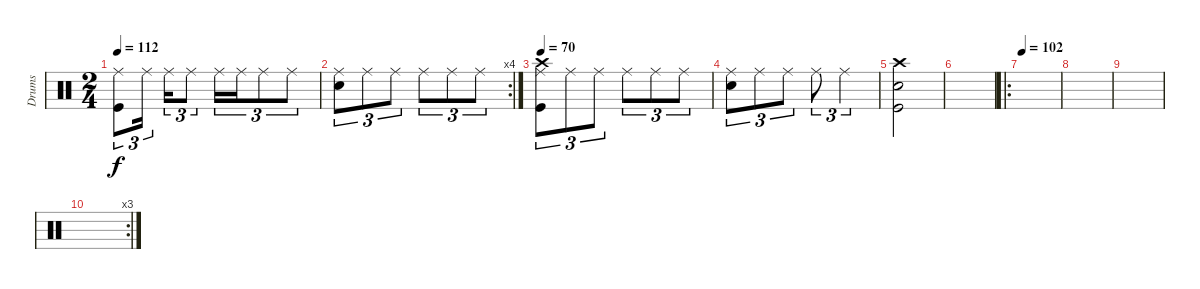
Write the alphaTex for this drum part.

\track ("Drums" "Drums") {instrument percussion}
\staff {score}
\articulation defaults
\ts (2 4)
\tempo 112
\clef neutral
\ks c
("Ride (middle)" "Kick (hit)").8{tu (3 2) dy f} "Ride (middle)".16{tu (3 2) beam splitsecondary} "Ride (middle)".16{tu (3 2)} "Ride (middle)".8{tu (3 2)} "Ride (middle)".16{tu (3 2)} "Ride (middle)".16{tu (3 2)} "Ride (middle)".8{tu (3 2)} "Ride (middle)".8{tu (3 2)} |
\rc 4
("Ride (middle)" "Snare (hit) 2").8{tu (3 2)} "Ride (middle)".8{tu (3 2)} "Ride (middle)".8{tu (3 2)} "Ride (middle)".8{tu (3 2)} "Ride (middle)".8{tu (3 2)} "Ride (middle)".8{tu (3 2)} |
\tempo 70
("Ride (middle)" "Crash high (hit)" "Kick (hit)").8{tu (3 2)} "Ride (middle)".8{tu (3 2)} "Ride (middle)".8{tu (3 2)} "Ride (middle)".8{tu (3 2)} "Ride (middle)".8{tu (3 2)} "Ride (middle)".8{tu (3 2)} |
("Ride (middle)" "Snare (hit) 2").8{tu (3 2)} "Ride (middle)".8{tu (3 2)} "Ride (middle)".8{tu (3 2)} "Ride (middle)".8{tu (3 2)} "Ride (middle)".4{tu (3 2)} |
("Kick (hit)" "Snare (hit) 2" "Crash high (hit)").2 |
|
\ro
\tempo 102
|
|
|
\rc 3
